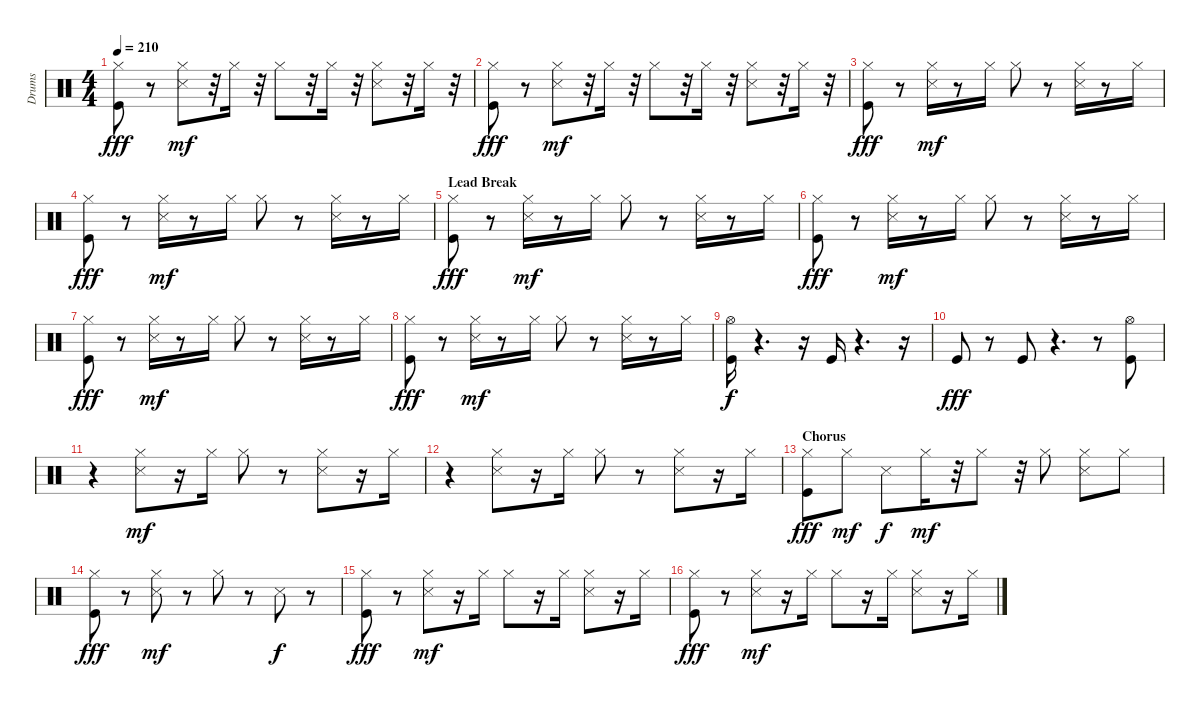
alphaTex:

\track ("Drums" "Drums") {instrument percussion}
\staff {score}
\articulation defaults
\ts (4 4)
\tempo 210
\clef neutral
\ks c
("Hi-Hat (closed)" "Kick (hit)").8{dy fff} r.8 ("Hi-Hat (closed)" "Snare (side stick) 3").8{dy mf} r.32 "Hi-Hat (closed)".16 r.32 "Hi-Hat (closed)".8 r.32 "Hi-Hat (closed)".16 r.32 ("Hi-Hat (closed)" "Snare (side stick) 3").8 r.32 "Hi-Hat (closed)".16 r.32 |
("Hi-Hat (closed)" "Kick (hit)").8{dy fff} r.8 ("Hi-Hat (closed)" "Snare (side stick) 3").8{dy mf} r.32 "Hi-Hat (closed)".16 r.32 "Hi-Hat (closed)".8 r.32 "Hi-Hat (closed)".16 r.32 ("Hi-Hat (closed)" "Snare (side stick) 3").8 r.32 "Hi-Hat (closed)".16 r.32 |
("Hi-Hat (closed)" "Kick (hit)").8{dy fff} r.8 ("Hi-Hat (closed)" "Snare (side stick) 3").16{dy mf} r.8 "Hi-Hat (closed)".16 "Hi-Hat (closed)".8 r.8 ("Hi-Hat (closed)" "Snare (side stick) 3").16 r.8 "Hi-Hat (closed)".16 |
("Hi-Hat (closed)" "Kick (hit)").8{dy fff} r.8 ("Hi-Hat (closed)" "Snare (side stick) 3").16{dy mf} r.8 "Hi-Hat (closed)".16 "Hi-Hat (closed)".8 r.8 ("Hi-Hat (closed)" "Snare (side stick) 3").16 r.8 "Hi-Hat (closed)".16 |
\section ("" "Lead Break")
("Hi-Hat (closed)" "Kick (hit)").8{dy fff} r.8 ("Hi-Hat (closed)" "Snare (side stick) 3").16{dy mf} r.8 "Hi-Hat (closed)".16 "Hi-Hat (closed)".8 r.8 ("Hi-Hat (closed)" "Snare (side stick) 3").16 r.8 "Hi-Hat (closed)".16 |
("Hi-Hat (closed)" "Kick (hit)").8{dy fff} r.8 ("Hi-Hat (closed)" "Snare (side stick) 3").16{dy mf} r.8 "Hi-Hat (closed)".16 "Hi-Hat (closed)".8 r.8 ("Hi-Hat (closed)" "Snare (side stick) 3").16 r.8 "Hi-Hat (closed)".16 |
("Hi-Hat (closed)" "Kick (hit)").8{dy fff} r.8 ("Hi-Hat (closed)" "Snare (side stick) 3").16{dy mf} r.8 "Hi-Hat (closed)".16 "Hi-Hat (closed)".8 r.8 ("Hi-Hat (closed)" "Snare (side stick) 3").16 r.8 "Hi-Hat (closed)".16 |
("Hi-Hat (closed)" "Kick (hit)").8{dy fff} r.8 ("Hi-Hat (closed)" "Snare (side stick) 3").16{dy mf} r.8 "Hi-Hat (closed)".16 "Hi-Hat (closed)".8 r.8 ("Hi-Hat (closed)" "Snare (side stick) 3").16 r.8 "Hi-Hat (closed)".16 |
("Hi-Hat (open)" "Kick (hit)").16{dy f} r.4{d} r.16 "Kick (hit)".16 r.4{d} r.16 |
"Kick (hit)".8{dy fff} r.8 "Kick (hit)".8 r.4{d} r.8 ("Hi-Hat (open)" "Kick (hit)").8 |
r.4 ("Hi-Hat (closed)" "Snare (side stick) 3").8{dy mf} r.16 "Hi-Hat (closed)".16 "Hi-Hat (closed)".8 r.8 ("Hi-Hat (closed)" "Snare (side stick) 3").8 r.16 "Hi-Hat (closed)".16 |
r.4 ("Hi-Hat (closed)" "Snare (side stick) 3").8 r.16 "Hi-Hat (closed)".16 "Hi-Hat (closed)".8 r.8 ("Hi-Hat (closed)" "Snare (side stick) 3").8 r.16 "Hi-Hat (closed)".16 |
\section ("" "Chorus")
("Hi-Hat (closed)" "Kick (hit)").8{dy fff} "Hi-Hat (closed)".8{dy mf} "Snare (side stick) 3".8{dy f} "Hi-Hat (closed)".16{dy mf} r.32 "Hi-Hat (closed)".8 r.32 "Hi-Hat (closed)".8 ("Hi-Hat (closed)" "Snare (side stick) 3").8 "Hi-Hat (closed)".8 |
("Hi-Hat (closed)" "Kick (hit)").8{dy fff} r.8 ("Hi-Hat (closed)" "Snare (side stick) 3").8{dy mf} r.8 "Hi-Hat (closed)".8 r.8 "Snare (side stick) 3".8{dy f} r.8 |
("Hi-Hat (closed)" "Kick (hit)").8{dy fff} r.8 ("Hi-Hat (closed)" "Snare (side stick) 3").8{dy mf} r.16 "Hi-Hat (closed)".16 "Hi-Hat (closed)".8 r.16 "Hi-Hat (closed)".16 ("Hi-Hat (closed)" "Snare (side stick) 3").8 r.16 "Hi-Hat (closed)".16 |
("Hi-Hat (closed)" "Kick (hit)").8{dy fff} r.8 ("Hi-Hat (closed)" "Snare (side stick) 3").8{dy mf} r.16 "Hi-Hat (closed)".16 "Hi-Hat (closed)".8 r.16 "Hi-Hat (closed)".16 ("Hi-Hat (closed)" "Snare (side stick) 3").8 r.16 "Hi-Hat (closed)".16
